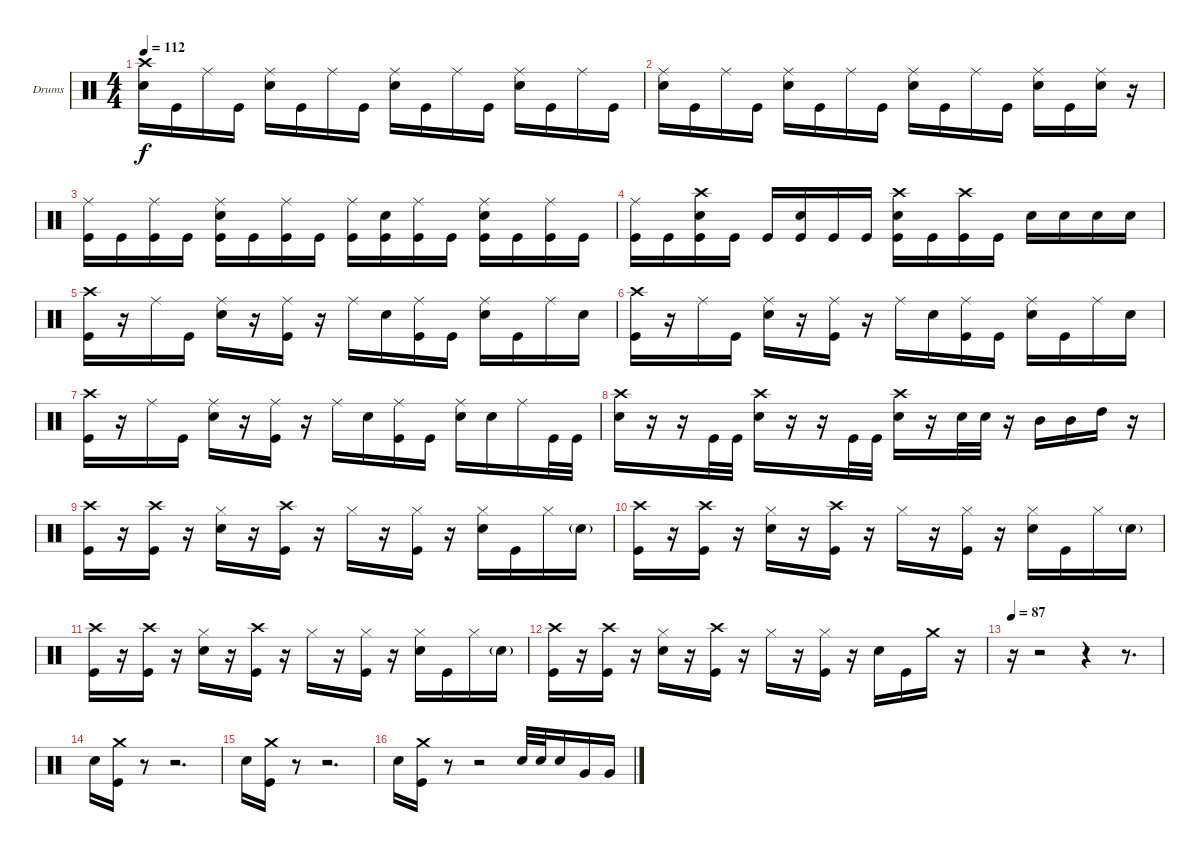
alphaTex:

\bracketExtendMode groupsimilarinstruments
\firstSystemTrackNameOrientation horizontal
\otherSystemsTrackNameOrientation horizontal
\track ("Drumkit" "Drums") {instrument percussion}
\staff {score}
\articulation defaults
\ts (4 4)
\tempo 112
\clef neutral
\ks c
("Crash high (hit)" "Snare (hit) 2").16{dy f} "Kick (hit)".16 "Ride (middle)".16 "Kick (hit)".16 ("Ride (middle)" "Snare (hit) 2").16 "Kick (hit)".16 "Ride (middle)".16 "Kick (hit)".16 ("Ride (middle)" "Snare (hit) 2").16 "Kick (hit)".16 "Ride (middle)".16 "Kick (hit)".16 ("Ride (middle)" "Snare (hit) 2").16 "Kick (hit)".16 "Ride (middle)".16 "Kick (hit)".16 |
("Ride (middle)" "Snare (hit) 2").16 "Kick (hit)".16 "Ride (middle)".16 "Kick (hit)".16 ("Ride (middle)" "Snare (hit) 2").16 "Kick (hit)".16 "Ride (middle)".16 "Kick (hit)".16 ("Ride (middle)" "Snare (hit) 2").16 "Kick (hit)".16 "Ride (middle)".16 "Kick (hit)".16 ("Ride (middle)" "Snare (hit) 2").16 "Kick (hit)".16 ("Ride (middle)" "Snare (hit) 2").16 r.16 |
("Ride (middle)" "Kick (hit)").16 "Kick (hit)".16 ("Ride (middle)" "Kick (hit)").16 "Kick (hit)".16 ("Ride (middle)" "Snare (hit) 2" "Kick (hit)").16 "Kick (hit)".16 ("Ride (middle)" "Kick (hit)").16 "Kick (hit)".16 ("Ride (middle)" "Kick (hit)").16 ("Snare (hit) 2" "Kick (hit)").16 ("Ride (middle)" "Kick (hit)").16 "Kick (hit)".16 ("Ride (middle)" "Snare (hit) 2" "Kick (hit)").16 "Kick (hit)".16 ("Ride (middle)" "Kick (hit)").16 "Kick (hit)".16 |
("Ride (middle)" "Kick (hit)").16 "Kick (hit)".16 ("Crash high (hit)" "Snare (hit) 2" "Kick (hit)").16 "Kick (hit)".16 "Kick (hit)".16 ("Snare (hit) 2" "Kick (hit)").16 "Kick (hit)".16 "Kick (hit)".16 ("Crash high (hit)" "Snare (hit) 2" "Kick (hit)").16 "Kick (hit)".16 ("Crash high (hit)" "Kick (hit)").16 "Kick (hit)".16 "Snare (hit) 2".16 "Snare (hit) 2".16 "Snare (hit) 2".16 "Snare (hit) 2".16 |
("Crash high (hit)" "Kick (hit)").16 r.16 "Ride (middle)".16 "Kick (hit)".16 ("Ride (middle)" "Snare (hit) 2").16 r.16 ("Ride (middle)" "Kick (hit)").16 r.16 "Ride (middle)".16 "Snare (hit) 2".16 ("Ride (middle)" "Kick (hit)").16 "Kick (hit)".16 ("Ride (middle)" "Snare (hit) 2").16 "Kick (hit)".16 "Ride (middle)".16 "Snare (hit) 2".16 |
("Crash high (hit)" "Kick (hit)").16 r.16 "Ride (middle)".16 "Kick (hit)".16 ("Ride (middle)" "Snare (hit) 2").16 r.16 ("Ride (middle)" "Kick (hit)").16 r.16 "Ride (middle)".16 "Snare (hit) 2".16 ("Ride (middle)" "Kick (hit)").16 "Kick (hit)".16 ("Ride (middle)" "Snare (hit) 2").16 "Kick (hit)".16 "Ride (middle)".16 "Snare (hit) 2".16 |
("Crash high (hit)" "Kick (hit)").16 r.16 "Ride (middle)".16 "Kick (hit)".16 ("Ride (middle)" "Snare (hit) 2").16 r.16 ("Ride (middle)" "Kick (hit)").16 r.16 "Ride (middle)".16 "Snare (hit) 2".16 ("Ride (middle)" "Kick (hit)").16 "Kick (hit)".16 ("Ride (middle)" "Snare (hit) 2").16 "Snare (hit) 2".16 "Ride (middle)".16 "Kick (hit)".32 "Kick (hit)".32 |
("Crash high (hit)" "Snare (hit) 2").16 r.16 r.16 "Kick (hit)".32 "Kick (hit)".32 ("Crash high (hit)" "Snare (hit) 2").16 r.16 r.16 "Kick (hit)".32 "Kick (hit)".32 ("Crash high (hit)" "Snare (hit) 2").16 r.16 "Snare (hit) 2".32 "Snare (hit) 2".32 r.16 "Mid Tom (hit)".16 "Mid Tom (hit)".16 "High Tom (hit)".16 r.16 |
("Crash high (hit)" "Kick (hit)").16 r.16 ("Crash high (hit)" "Kick (hit)").16 r.16 ("Hi-Hat (closed)" "Snare (hit) 2").16 r.16 ("Crash high (hit)" "Kick (hit)").16 r.16 "Hi-Hat (closed)".16 r.16 ("Hi-Hat (closed)" "Kick (hit)").16 r.16 ("Hi-Hat (closed)" "Snare (hit) 2").16 "Kick (hit)".16 "Hi-Hat (closed)".16 "Snare (hit) 2"{g}.16 |
("Crash high (hit)" "Kick (hit)").16 r.16 ("Crash high (hit)" "Kick (hit)").16 r.16 ("Hi-Hat (closed)" "Snare (hit) 2").16 r.16 ("Crash high (hit)" "Kick (hit)").16 r.16 "Hi-Hat (closed)".16 r.16 ("Hi-Hat (closed)" "Kick (hit)").16 r.16 ("Hi-Hat (closed)" "Snare (hit) 2").16 "Kick (hit)".16 "Hi-Hat (closed)".16 "Snare (hit) 2"{g}.16 |
("Crash high (hit)" "Kick (hit)").16 r.16 ("Crash high (hit)" "Kick (hit)").16 r.16 ("Hi-Hat (closed)" "Snare (hit) 2").16 r.16 ("Crash high (hit)" "Kick (hit)").16 r.16 "Hi-Hat (closed)".16 r.16 ("Hi-Hat (closed)" "Kick (hit)").16 r.16 ("Hi-Hat (closed)" "Snare (hit) 2").16 "Kick (hit)".16 "Hi-Hat (closed)".16 "Snare (hit) 2"{g}.16 |
("Crash high (hit)" "Kick (hit)").16 r.16 ("Crash high (hit)" "Kick (hit)").16 r.16 ("Hi-Hat (closed)" "Snare (hit) 2").16 r.16 ("Crash high (hit)" "Kick (hit)").16 r.16 "Hi-Hat (closed)".16 r.16 ("Hi-Hat (closed)" "Kick (hit)").16 r.16 "Snare (hit) 2".16 "Kick (hit)".16 "Crash medium (hit)".16 r.16 |
\tempo 87
r.16 r.2 r.4 r.8{d} |
"Snare (hit) 2".16 ("Crash medium (hit)" "Kick (hit)").16 r.8 r.2{d} |
"Snare (hit) 2".16 ("Crash medium (hit)" "Kick (hit)").16 r.8 r.2{d} |
"Snare (hit) 2".16 ("Crash medium (hit)" "Kick (hit)").16 r.8 r.2 "Snare (hit) 2".32 "Snare (hit) 2".32 "Snare (hit) 2".16 "Very Low Tom (hit)".16 "Very Low Tom (hit)".16
